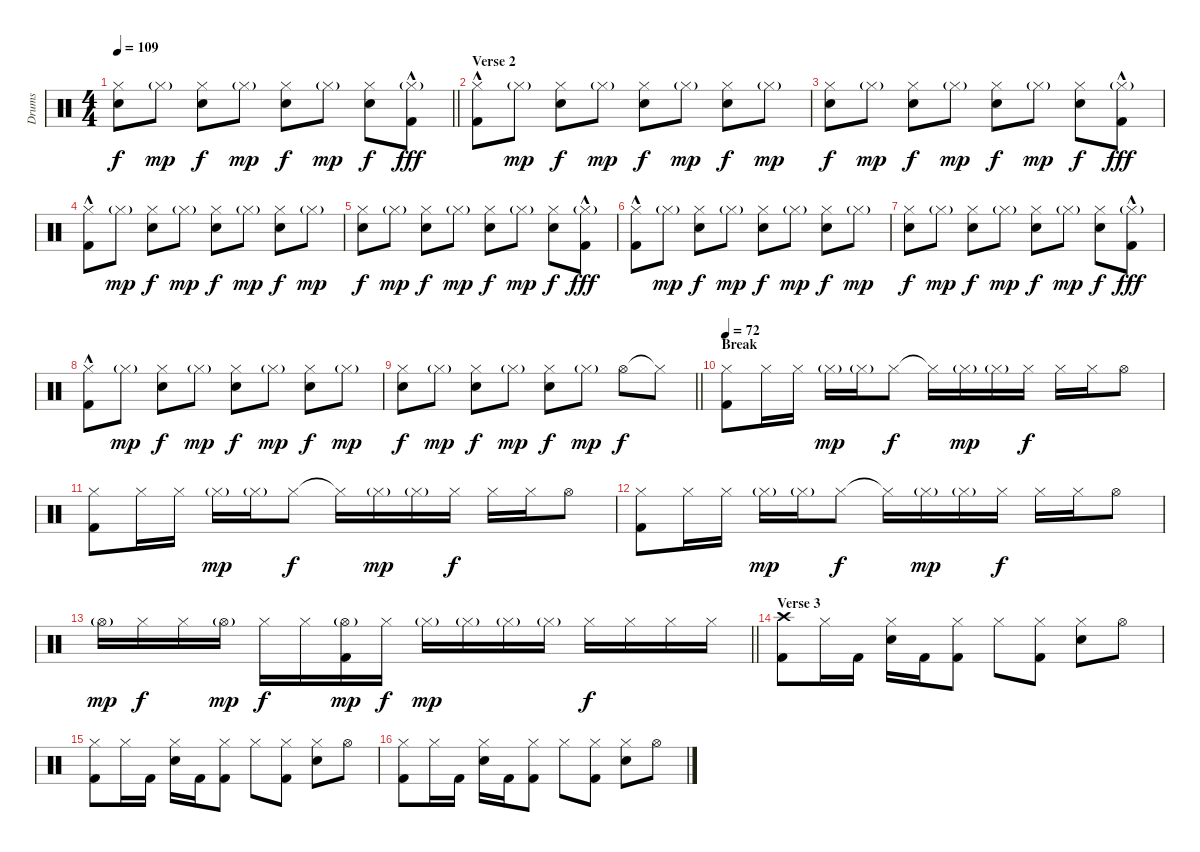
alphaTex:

\track ("Drums" "Drums") {instrument percussion}
\staff {score}
\articulation defaults
\ts (4 4)
\tempo 109
\clef neutral
\barLineRight lightlight
\ks c
("Hi-Hat (closed)" "Electric Snare (hit)").8{dy f} "Hi-Hat (closed)"{g}.8{dy mp} ("Hi-Hat (closed)" "Electric Snare (hit)").8{dy f} "Hi-Hat (closed)"{g}.8{dy mp} ("Hi-Hat (closed)" "Electric Snare (hit)").8{dy f} "Hi-Hat (closed)"{g}.8{dy mp} ("Hi-Hat (closed)" "Electric Snare (hit)").8{dy f} ("Hi-Hat (closed)"{g} "Kick (hit) 2"{hac}).8{dy fff} |
\section ("" "Verse 2")
("Hi-Hat (closed)" "Kick (hit) 2"{hac}).8 "Hi-Hat (closed)"{g}.8{dy mp} ("Hi-Hat (closed)" "Electric Snare (hit)").8{dy f} "Hi-Hat (closed)"{g}.8{dy mp} ("Hi-Hat (closed)" "Electric Snare (hit)").8{dy f} "Hi-Hat (closed)"{g}.8{dy mp} ("Hi-Hat (closed)" "Electric Snare (hit)").8{dy f} "Hi-Hat (closed)"{g}.8{dy mp} |
("Hi-Hat (closed)" "Electric Snare (hit)").8{dy f} "Hi-Hat (closed)"{g}.8{dy mp} ("Hi-Hat (closed)" "Electric Snare (hit)").8{dy f} "Hi-Hat (closed)"{g}.8{dy mp} ("Hi-Hat (closed)" "Electric Snare (hit)").8{dy f} "Hi-Hat (closed)"{g}.8{dy mp} ("Hi-Hat (closed)" "Electric Snare (hit)").8{dy f} ("Hi-Hat (closed)"{g} "Kick (hit) 2"{hac}).8{dy fff} |
("Hi-Hat (closed)" "Kick (hit) 2"{hac}).8 "Hi-Hat (closed)"{g}.8{dy mp} ("Hi-Hat (closed)" "Electric Snare (hit)").8{dy f} "Hi-Hat (closed)"{g}.8{dy mp} ("Hi-Hat (closed)" "Electric Snare (hit)").8{dy f} "Hi-Hat (closed)"{g}.8{dy mp} ("Hi-Hat (closed)" "Electric Snare (hit)").8{dy f} "Hi-Hat (closed)"{g}.8{dy mp} |
("Hi-Hat (closed)" "Electric Snare (hit)").8{dy f} "Hi-Hat (closed)"{g}.8{dy mp} ("Hi-Hat (closed)" "Electric Snare (hit)").8{dy f} "Hi-Hat (closed)"{g}.8{dy mp} ("Hi-Hat (closed)" "Electric Snare (hit)").8{dy f} "Hi-Hat (closed)"{g}.8{dy mp} ("Hi-Hat (closed)" "Electric Snare (hit)").8{dy f} ("Hi-Hat (closed)"{g} "Kick (hit) 2"{hac}).8{dy fff} |
("Hi-Hat (closed)" "Kick (hit) 2"{hac}).8 "Hi-Hat (closed)"{g}.8{dy mp} ("Hi-Hat (closed)" "Electric Snare (hit)").8{dy f} "Hi-Hat (closed)"{g}.8{dy mp} ("Hi-Hat (closed)" "Electric Snare (hit)").8{dy f} "Hi-Hat (closed)"{g}.8{dy mp} ("Hi-Hat (closed)" "Electric Snare (hit)").8{dy f} "Hi-Hat (closed)"{g}.8{dy mp} |
("Hi-Hat (closed)" "Electric Snare (hit)").8{dy f} "Hi-Hat (closed)"{g}.8{dy mp} ("Hi-Hat (closed)" "Electric Snare (hit)").8{dy f} "Hi-Hat (closed)"{g}.8{dy mp} ("Hi-Hat (closed)" "Electric Snare (hit)").8{dy f} "Hi-Hat (closed)"{g}.8{dy mp} ("Hi-Hat (closed)" "Electric Snare (hit)").8{dy f} ("Hi-Hat (closed)"{g} "Kick (hit) 2"{hac}).8{dy fff} |
("Hi-Hat (closed)" "Kick (hit) 2"{hac}).8 "Hi-Hat (closed)"{g}.8{dy mp} ("Hi-Hat (closed)" "Electric Snare (hit)").8{dy f} "Hi-Hat (closed)"{g}.8{dy mp} ("Hi-Hat (closed)" "Electric Snare (hit)").8{dy f} "Hi-Hat (closed)"{g}.8{dy mp} ("Hi-Hat (closed)" "Electric Snare (hit)").8{dy f} "Hi-Hat (closed)"{g}.8{dy mp} |
\barLineRight lightlight
("Hi-Hat (closed)" "Electric Snare (hit)").8{dy f} "Hi-Hat (closed)"{g}.8{dy mp} ("Hi-Hat (closed)" "Electric Snare (hit)").8{dy f} "Hi-Hat (closed)"{g}.8{dy mp} ("Hi-Hat (closed)" "Electric Snare (hit)").8{dy f} "Hi-Hat (closed)"{g}.8{dy mp} "Hi-Hat (open)".8{dy f} "Hi-Hat (closed)"{t}.8 |
\section ("" "Break")
\tempo 72
("Hi-Hat (closed)" "Kick (hit) 2").8 "Hi-Hat (closed)".16 "Hi-Hat (closed)".16 "Hi-Hat (closed)"{g}.16{dy mp} "Hi-Hat (closed)"{g}.16 "Hi-Hat (closed)".8{dy f} "Hi-Hat (closed)"{t}.16 "Hi-Hat (closed)"{g}.16{dy mp} "Hi-Hat (closed)"{g}.16 "Hi-Hat (closed)".16{dy f} "Hi-Hat (closed)".16 "Hi-Hat (closed)".16 "Hi-Hat (open)".8 |
("Hi-Hat (closed)" "Kick (hit) 2").8 "Hi-Hat (closed)".16 "Hi-Hat (closed)".16 "Hi-Hat (closed)"{g}.16{dy mp} "Hi-Hat (closed)"{g}.16 "Hi-Hat (closed)".8{dy f} "Hi-Hat (closed)"{t}.16 "Hi-Hat (closed)"{g}.16{dy mp} "Hi-Hat (closed)"{g}.16 "Hi-Hat (closed)".16{dy f} "Hi-Hat (closed)".16 "Hi-Hat (closed)".16 "Hi-Hat (open)".8 |
("Hi-Hat (closed)" "Kick (hit) 2").8 "Hi-Hat (closed)".16 "Hi-Hat (closed)".16 "Hi-Hat (closed)"{g}.16{dy mp} "Hi-Hat (closed)"{g}.16 "Hi-Hat (closed)".8{dy f} "Hi-Hat (closed)"{t}.16 "Hi-Hat (closed)"{g}.16{dy mp} "Hi-Hat (closed)"{g}.16 "Hi-Hat (closed)".16{dy f} "Hi-Hat (closed)".16 "Hi-Hat (closed)".16 "Hi-Hat (open)".8 |
\barLineRight lightlight "Hi-Hat (open)"{g}.16{dy mp} "Hi-Hat (closed)".16{dy f} "Hi-Hat (closed)".16 "Hi-Hat (open)"{g}.16{dy mp} "Hi-Hat (closed)".16{dy f} "Hi-Hat (closed)".16
("Hi-Hat (open)"{g} "Kick (hit) 2").16{dy mp} "Hi-Hat (closed)".16{dy f} "Hi-Hat (closed)"{g}.16{dy mp} "Hi-Hat (closed)"{g}.16 "Hi-Hat (closed)"{g}.16 "Hi-Hat (closed)"{g}.16 "Hi-Hat (closed)".16{dy f} "Hi-Hat (closed)".16 "Hi-Hat (closed)".16 "Hi-Hat (closed)".16 |
\section ("" "Verse 3")
("Crash high (hit)" "Kick (hit) 2").8 "Hi-Hat (closed)".16 "Kick (hit) 2".16 ("Hi-Hat (closed)" "Electric Snare (hit)").16 "Kick (hit) 2".16 ("Hi-Hat (closed)" "Kick (hit) 2").8 "Hi-Hat (closed)".8 ("Hi-Hat (closed)" "Kick (hit) 2").8 ("Hi-Hat (closed)" "Electric Snare (hit)").8 "Hi-Hat (open)".8 |
("Hi-Hat (closed)" "Kick (hit) 2").8 "Hi-Hat (closed)".16 "Kick (hit) 2".16 ("Hi-Hat (closed)" "Electric Snare (hit)").16 "Kick (hit) 2".16 ("Hi-Hat (closed)" "Kick (hit) 2").8 "Hi-Hat (closed)".8 ("Hi-Hat (closed)" "Kick (hit) 2").8 ("Hi-Hat (closed)" "Electric Snare (hit)").8 "Hi-Hat (open)".8 |
("Hi-Hat (closed)" "Kick (hit) 2").8 "Hi-Hat (closed)".16 "Kick (hit) 2".16 ("Hi-Hat (closed)" "Electric Snare (hit)").16 "Kick (hit) 2".16 ("Hi-Hat (closed)" "Kick (hit) 2").8 "Hi-Hat (closed)".8 ("Hi-Hat (closed)" "Kick (hit) 2").8 ("Hi-Hat (closed)" "Electric Snare (hit)").8 "Hi-Hat (open)".8
